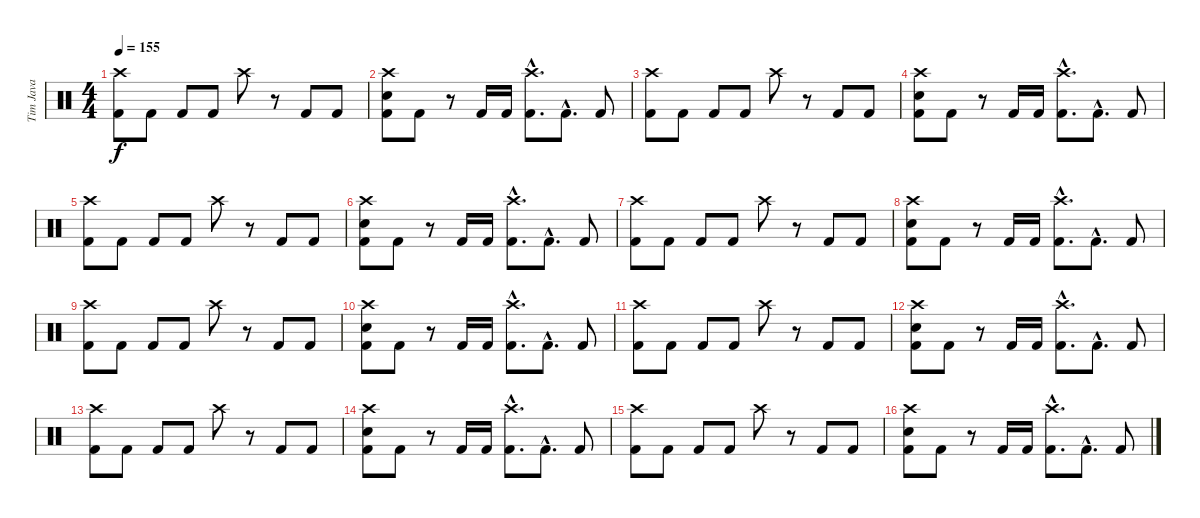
\track ("Tim Java" "Tim Java") {instrument percussion}
\staff {score}
\articulation defaults
\ts (4 4)
\tempo 155
\clef neutral
\ks c
("Crash high (hit)" "Kick (hit) 2").8{dy f} "Kick (hit) 2".8 "Kick (hit) 2".8 "Kick (hit) 2".8 "Crash high (hit)".8 r.8 "Kick (hit) 2".8 "Kick (hit) 2".8 |
("Crash high (hit)" "Electric Snare (hit)" "Kick (hit) 2").8 "Kick (hit) 2".8 r.8 "Kick (hit) 2".16 "Kick (hit) 2".16 ("Crash high (hit)"{hac} "Kick (hit) 2"{hac}).8{d} "Kick (hit) 2"{hac}.8{d} "Kick (hit) 2".8 |
("Crash high (hit)" "Kick (hit) 2").8 "Kick (hit) 2".8 "Kick (hit) 2".8 "Kick (hit) 2".8 "Crash high (hit)".8 r.8 "Kick (hit) 2".8 "Kick (hit) 2".8 |
("Crash high (hit)" "Electric Snare (hit)" "Kick (hit) 2").8 "Kick (hit) 2".8 r.8 "Kick (hit) 2".16 "Kick (hit) 2".16 ("Crash high (hit)"{hac} "Kick (hit) 2"{hac}).8{d} "Kick (hit) 2"{hac}.8{d} "Kick (hit) 2".8 |
("Crash high (hit)" "Kick (hit) 2").8 "Kick (hit) 2".8 "Kick (hit) 2".8 "Kick (hit) 2".8 "Crash high (hit)".8 r.8 "Kick (hit) 2".8 "Kick (hit) 2".8 |
("Crash high (hit)" "Electric Snare (hit)" "Kick (hit) 2").8 "Kick (hit) 2".8 r.8 "Kick (hit) 2".16 "Kick (hit) 2".16 ("Crash high (hit)"{hac} "Kick (hit) 2"{hac}).8{d} "Kick (hit) 2"{hac}.8{d} "Kick (hit) 2".8 |
("Crash high (hit)" "Kick (hit) 2").8 "Kick (hit) 2".8 "Kick (hit) 2".8 "Kick (hit) 2".8 "Crash high (hit)".8 r.8 "Kick (hit) 2".8 "Kick (hit) 2".8 |
("Crash high (hit)" "Electric Snare (hit)" "Kick (hit) 2").8 "Kick (hit) 2".8 r.8 "Kick (hit) 2".16 "Kick (hit) 2".16 ("Crash high (hit)"{hac} "Kick (hit) 2"{hac}).8{d} "Kick (hit) 2"{hac}.8{d} "Kick (hit) 2".8 |
("Crash high (hit)" "Kick (hit) 2").8 "Kick (hit) 2".8 "Kick (hit) 2".8 "Kick (hit) 2".8 "Crash high (hit)".8 r.8 "Kick (hit) 2".8 "Kick (hit) 2".8 |
("Crash high (hit)" "Electric Snare (hit)" "Kick (hit) 2").8 "Kick (hit) 2".8 r.8 "Kick (hit) 2".16 "Kick (hit) 2".16 ("Crash high (hit)"{hac} "Kick (hit) 2"{hac}).8{d} "Kick (hit) 2"{hac}.8{d} "Kick (hit) 2".8 |
("Crash high (hit)" "Kick (hit) 2").8 "Kick (hit) 2".8 "Kick (hit) 2".8 "Kick (hit) 2".8 "Crash high (hit)".8 r.8 "Kick (hit) 2".8 "Kick (hit) 2".8 |
("Crash high (hit)" "Electric Snare (hit)" "Kick (hit) 2").8 "Kick (hit) 2".8 r.8 "Kick (hit) 2".16 "Kick (hit) 2".16 ("Crash high (hit)"{hac} "Kick (hit) 2"{hac}).8{d} "Kick (hit) 2"{hac}.8{d} "Kick (hit) 2".8 |
("Crash high (hit)" "Kick (hit) 2").8 "Kick (hit) 2".8 "Kick (hit) 2".8 "Kick (hit) 2".8 "Crash high (hit)".8 r.8 "Kick (hit) 2".8 "Kick (hit) 2".8 |
("Crash high (hit)" "Electric Snare (hit)" "Kick (hit) 2").8 "Kick (hit) 2".8 r.8 "Kick (hit) 2".16 "Kick (hit) 2".16 ("Crash high (hit)"{hac} "Kick (hit) 2"{hac}).8{d} "Kick (hit) 2"{hac}.8{d} "Kick (hit) 2".8 |
("Crash high (hit)" "Kick (hit) 2").8 "Kick (hit) 2".8 "Kick (hit) 2".8 "Kick (hit) 2".8 "Crash high (hit)".8 r.8 "Kick (hit) 2".8 "Kick (hit) 2".8 |
("Crash high (hit)" "Electric Snare (hit)" "Kick (hit) 2").8 "Kick (hit) 2".8 r.8 "Kick (hit) 2".16 "Kick (hit) 2".16 ("Crash high (hit)"{hac} "Kick (hit) 2"{hac}).8{d} "Kick (hit) 2"{hac}.8{d} "Kick (hit) 2".8
